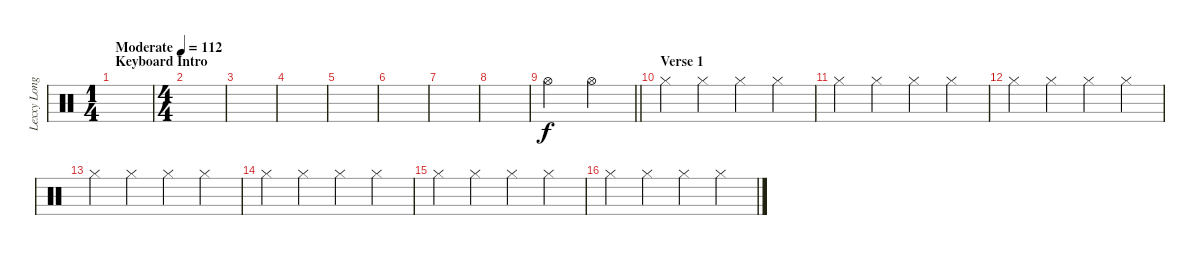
\track ("Lexxy Longlegz (Chuto)" "Lexxy Long") {instrument percussion}
\staff {score}
\articulation defaults
\ts (1 4)
\section ("" "Keyboard Intro")
\tempo (112 "Moderate")
\clef neutral
\ks c
|
\ts (4 4)
|
|
|
|
|
|
|
\barLineRight lightlight "Hi-Hat (open)".2 "Hi-Hat (open)".2
|
\section ("" "Verse 1")
"Hi-Hat (closed)".4 "Hi-Hat (closed)".4 "Hi-Hat (closed)".4 "Hi-Hat (closed)".4 |
"Hi-Hat (closed)".4 "Hi-Hat (closed)".4 "Hi-Hat (closed)".4 "Hi-Hat (closed)".4 |
"Hi-Hat (closed)".4 "Hi-Hat (closed)".4 "Hi-Hat (closed)".4 "Hi-Hat (closed)".4 |
"Hi-Hat (closed)".4 "Hi-Hat (closed)".4 "Hi-Hat (closed)".4 "Hi-Hat (closed)".4 |
"Hi-Hat (closed)".4 "Hi-Hat (closed)".4 "Hi-Hat (closed)".4 "Hi-Hat (closed)".4 |
"Hi-Hat (closed)".4 "Hi-Hat (closed)".4 "Hi-Hat (closed)".4 "Hi-Hat (closed)".4 |
"Hi-Hat (closed)".4 "Hi-Hat (closed)".4 "Hi-Hat (closed)".4 "Hi-Hat (closed)".4
